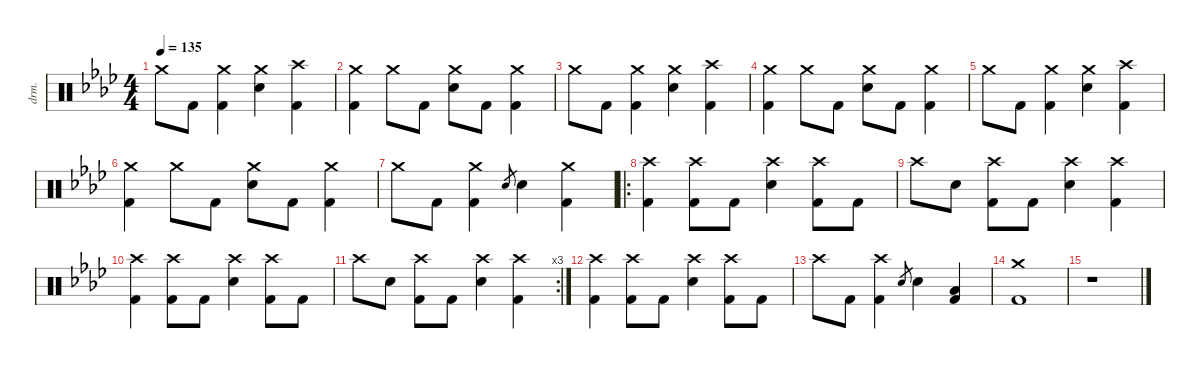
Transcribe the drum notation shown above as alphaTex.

\defaultSystemsLayout 4
\hideDynamics
\bracketExtendMode nobrackets
\otherSystemsTrackNameOrientation horizontal
\track ("Drums" "drm.") {defaultSystemsLayout 4 instrument percussion}
\staff {score}
\articulation defaults
\ts (4 4)
\tempo 135
\clef neutral
\ks ab "Crash medium (hit)"{acc forcenatural}.8{dy f beam Down} "Kick (hit) 2"{acc forcenatural}.8{beam Down}
("Crash medium (hit)"{acc forcenatural} "Kick (hit) 2"{acc forcenatural}).4{beam Down} ("Crash medium (hit)"{acc forcenatural} "Snare (hit) 2"{acc forcenatural}).4{beam Down} ("Crash high (hit)"{acc forcenatural} "Kick (hit) 2"{acc forcenatural}).4{beam Down} |
("Crash medium (hit)"{acc forcenatural} "Kick (hit) 2"{acc forcenatural}).4{beam Down} "Crash medium (hit)"{acc forcenatural}.8{beam Down} "Kick (hit) 2"{acc forcenatural}.8{beam Down} ("Crash medium (hit)"{acc forcenatural} "Snare (hit) 2"{acc forcenatural}).8{beam Down} "Kick (hit) 2"{acc forcenatural}.8{beam Down} ("Crash medium (hit)"{acc forcenatural} "Kick (hit) 2"{acc forcenatural}).4{beam Down} |
"Crash medium (hit)"{acc forcenatural}.8{beam Down} "Kick (hit) 2"{acc forcenatural}.8{beam Down} ("Crash medium (hit)"{acc forcenatural} "Kick (hit) 2"{acc forcenatural}).4{beam Down} ("Crash medium (hit)"{acc forcenatural} "Snare (hit) 2"{acc forcenatural}).4{beam Down} ("Crash high (hit)"{acc forcenatural} "Kick (hit) 2"{acc forcenatural}).4{beam Down} |
("Crash medium (hit)"{acc forcenatural} "Kick (hit) 2"{acc forcenatural}).4{beam Down} "Crash medium (hit)"{acc forcenatural}.8{beam Down} "Kick (hit) 2"{acc forcenatural}.8{beam Down} ("Crash medium (hit)"{acc forcenatural} "Snare (hit) 2"{acc forcenatural}).8{beam Down} "Kick (hit) 2"{acc forcenatural}.8{beam Down} ("Crash medium (hit)"{acc forcenatural} "Kick (hit) 2"{acc forcenatural}).4{beam Down} |
"Crash medium (hit)"{acc forcenatural}.8{beam Down} "Kick (hit) 2"{acc forcenatural}.8{beam Down} ("Crash medium (hit)"{acc forcenatural} "Kick (hit) 2"{acc forcenatural}).4{beam Down} ("Crash medium (hit)"{acc forcenatural} "Snare (hit) 2"{acc forcenatural}).4{beam Down} ("Crash high (hit)"{acc forcenatural} "Kick (hit) 2"{acc forcenatural}).4{beam Down} |
("Crash medium (hit)"{acc forcenatural} "Kick (hit) 2"{acc forcenatural}).4{beam Down} "Crash medium (hit)"{acc forcenatural}.8{beam Down} "Kick (hit) 2"{acc forcenatural}.8{beam Down} ("Crash medium (hit)"{acc forcenatural} "Snare (hit) 2"{acc forcenatural}).8{beam Down} "Kick (hit) 2"{acc forcenatural}.8{beam Down} ("Crash medium (hit)"{acc forcenatural} "Kick (hit) 2"{acc forcenatural}).4{beam Down} |
"Crash medium (hit)"{acc forcenatural}.8{beam Down} "Kick (hit) 2"{acc forcenatural}.8{beam Down} ("Crash medium (hit)"{acc forcenatural} "Kick (hit) 2"{acc forcenatural}).4{beam Down} "Electric Snare (hit)"{acc forcenatural}.8{gr dy mf beam Up} "Snare (hit) 2"{acc forcenatural}.4{dy f beam Down} ("Crash medium (hit)"{acc forcenatural} "Kick (hit) 2"{acc forcenatural}).4{beam Down} |
\ro
("Crash high (hit)"{acc forcenatural} "Kick (hit) 2"{acc forcenatural}).4{beam Down} ("Crash high (hit)"{acc forcenatural} "Kick (hit) 2"{acc forcenatural}).8{beam Down} "Kick (hit) 2"{acc forcenatural}.8{beam Down} ("Crash high (hit)"{acc forcenatural} "Snare (hit) 2"{acc forcenatural}).4{beam Down} ("Crash high (hit)"{acc forcenatural} "Kick (hit) 2"{acc forcenatural}).8{beam Down} "Kick (hit) 2"{acc forcenatural}.8{beam Down} |
"Crash high (hit)"{acc forcenatural}.8{beam Down} "Snare (hit) 2"{acc forcenatural}.8{beam Down} ("Crash high (hit)"{acc forcenatural} "Kick (hit) 2"{acc forcenatural}).8{beam Down} "Kick (hit) 2"{acc forcenatural}.8{beam Down} ("Crash high (hit)"{acc forcenatural} "Snare (hit) 2"{acc forcenatural}).4{beam Down} ("Crash high (hit)"{acc forcenatural} "Kick (hit) 2"{acc forcenatural}).4{beam Down} |
("Crash high (hit)"{acc forcenatural} "Kick (hit) 2"{acc forcenatural}).4{beam Down} ("Crash high (hit)"{acc forcenatural} "Kick (hit) 2"{acc forcenatural}).8{beam Down} "Kick (hit) 2"{acc forcenatural}.8{beam Down} ("Crash high (hit)"{acc forcenatural} "Snare (hit) 2"{acc forcenatural}).4{beam Down} ("Crash high (hit)"{acc forcenatural} "Kick (hit) 2"{acc forcenatural}).8{beam Down} "Kick (hit) 2"{acc forcenatural}.8{beam Down} |
\rc 3 "Crash high (hit)"{acc forcenatural}.8{beam Down} "Snare (hit) 2"{acc forcenatural}.8{beam Down}
("Crash high (hit)"{acc forcenatural} "Kick (hit) 2"{acc forcenatural}).8{beam Down} "Kick (hit) 2"{acc forcenatural}.8{beam Down} ("Crash high (hit)"{acc forcenatural} "Snare (hit) 2"{acc forcenatural}).4{beam Down} ("Crash high (hit)"{acc forcenatural} "Kick (hit) 2"{acc forcenatural}).4{beam Down} |
("Crash high (hit)"{acc forcenatural} "Kick (hit) 2"{acc forcenatural}).4{beam Down} ("Crash high (hit)"{acc forcenatural} "Kick (hit) 2"{acc forcenatural}).8{beam Down} "Kick (hit) 2"{acc forcenatural}.8{beam Down} ("Crash high (hit)"{acc forcenatural} "Snare (hit) 2"{acc forcenatural}).4{beam Down} ("Crash high (hit)"{acc forcenatural} "Kick (hit) 2"{acc forcenatural}).8{beam Down} "Kick (hit) 2"{acc forcenatural}.8{beam Down} |
"Crash high (hit)"{acc forcenatural}.8{beam Down} "Kick (hit) 2"{acc forcenatural}.8{beam Down} ("Crash high (hit)"{acc forcenatural} "Kick (hit) 2"{acc forcenatural}).4{beam Down} "Electric Snare (hit)"{acc forcenatural}.8{gr dy mf beam Up} "Snare (hit) 2"{acc forcenatural}.4{dy f beam Down} ("Low Floor Tom (hit)"{acc forcenatural} "Kick (hit) 2"{acc forcenatural}).4{beam Up} |
("Crash medium (hit)"{acc forcenatural} "Kick (hit) 2"{acc forcenatural}).1{beam Down} |
r.1{beam Down}
